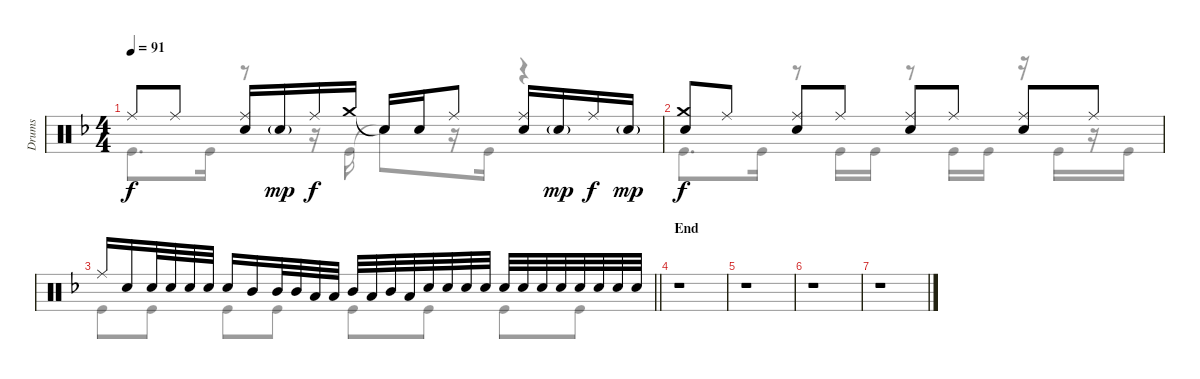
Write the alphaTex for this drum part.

\track ("Drums" "Drums") {instrument percussion}
\staff {score}
\articulation defaults
\voice
\ts (4 4)
\tempo 91
\clef neutral
\ks f "Ride (middle)".8{dy f} "Ride (middle)".8
("Ride (middle)" "Snare (hit) 2").16 "Snare (hit) 2"{g}.16{dy mp} "Ride (middle)".16{dy f} "Crash medium (hit)".16 "Snare (hit)"{t}.16 "Snare (hit) 2".16 "Ride (middle)".8 ("Ride (middle)" "Snare (hit) 2").16 "Snare (hit) 2"{g}.16{dy mp} "Ride (middle)".16{dy f} "Snare (hit) 2"{g}.16{dy mp} |
("Crash medium (hit)" "Snare (hit) 2").8{dy f} "Ride (middle)".8 ("Ride (middle)" "Snare (hit) 2").8 "Ride (middle)".8 ("Ride (middle)" "Snare (hit) 2").8 "Ride (middle)".8 ("Ride (middle)" "Snare (hit) 2").8 "Ride (middle)".8 |
\barLineRight lightlight "Ride (middle)".16 "Snare (hit) 2".16 "Snare (hit) 2".32 "Snare (hit) 2".32 "Snare (hit) 2".32 "Snare (hit) 2".32 "Snare (hit) 2".16 "Mid Tom (hit)".16 "Mid Tom (hit)".32 "Mid Tom (hit)".32 "Low Tom (hit)".32 "Low Tom (hit)".32 "Mid Tom (hit)".32 "Low Tom (hit)".32 "Mid Tom (hit)".32 "Low Tom (hit)".32 "Snare (hit) 2".32 "Snare (hit) 2".32 "Snare (hit) 2".32 "Snare (hit) 2".32 "Snare (hit) 2".32 "Snare (hit) 2".32 "Snare (hit) 2".32 "Snare (hit) 2".32 "Snare (hit) 2".32 "Snare (hit) 2".32 "Snare (hit) 2".32 "Snare (hit) 2".32
|
\section ("" "End")
r.1 |
r.1 |
r.1 |
r.1
\voice
\clef neutral
\ottava regular
\simile none
\ks f "Kick (hit)".8{d dy f} "Kick (hit)".16
r.8 r.16 "Kick (hit)".16 "Snare (hit)"{t}.8 r.16 "Kick (hit)".16 r.4 |
"Kick (hit)".8{d} "Kick (hit)".16 r.8 "Kick (hit)".16 "Kick (hit)".16 r.8 "Kick (hit)".16 "Kick (hit)".16 r.16 "Kick (hit)".16 r.16 "Kick (hit)".16 |
\barLineRight lightlight "Kick (hit)".8 "Kick (hit)".8 "Kick (hit)".8 "Kick (hit)".8 "Kick (hit)".8 "Kick (hit)".8 "Kick (hit)".8 "Kick (hit)".8
|
r.1 |
r.1 |
r.1 |
r.1
